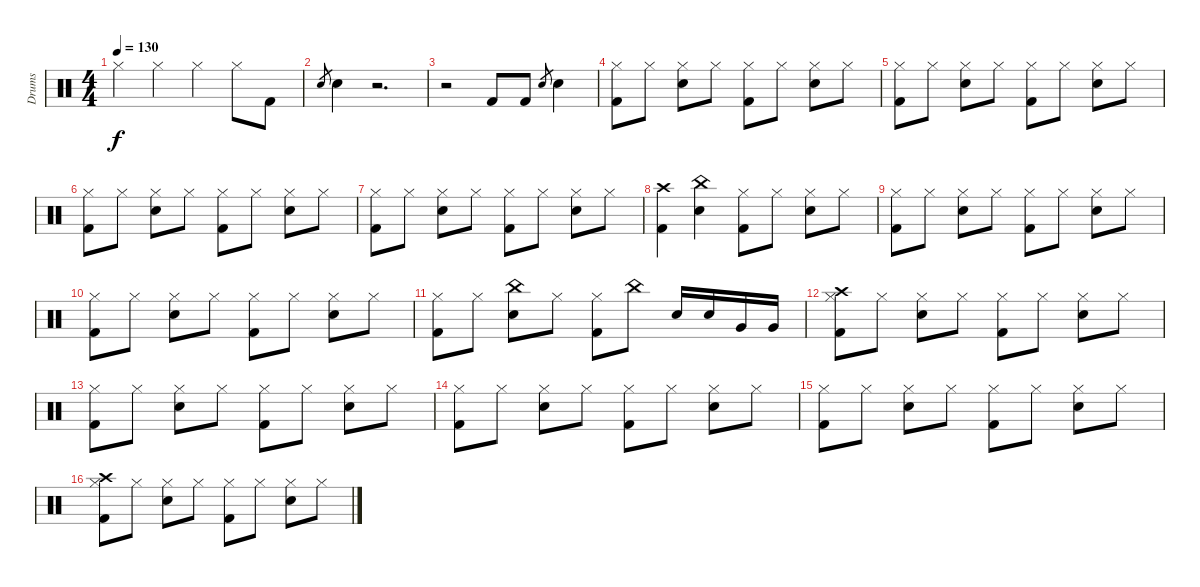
\track ("Drums" "Drums") {instrument percussion}
\staff {score}
\articulation defaults
\ts (4 4)
\tempo 130
\clef neutral
\ks c "Hi-Hat (closed)".4{dy f} "Hi-Hat (closed)".4 "Hi-Hat (closed)".4 "Hi-Hat (closed)".8 "Kick (hit) 2".8
|
"Electric Snare (hit)".8{gr} "Electric Snare (hit)".4 r.2{d} |
r.2 "Kick (hit) 2".8 "Kick (hit) 2".8 "Electric Snare (hit)".8{gr} "Electric Snare (hit)".4 |
("Hi-Hat (closed)" "Kick (hit) 2").8 "Hi-Hat (closed)".8 ("Hi-Hat (closed)" "Electric Snare (hit)").8 "Hi-Hat (closed)".8 ("Hi-Hat (closed)" "Kick (hit) 2").8 "Hi-Hat (closed)".8 ("Hi-Hat (closed)" "Electric Snare (hit)").8 "Hi-Hat (closed)".8 |
("Hi-Hat (closed)" "Kick (hit) 2").8 "Hi-Hat (closed)".8 ("Hi-Hat (closed)" "Electric Snare (hit)").8 "Hi-Hat (closed)".8 ("Hi-Hat (closed)" "Kick (hit) 2").8 "Hi-Hat (closed)".8 ("Hi-Hat (closed)" "Electric Snare (hit)").8 "Hi-Hat (closed)".8 |
("Hi-Hat (closed)" "Kick (hit) 2").8 "Hi-Hat (closed)".8 ("Hi-Hat (closed)" "Electric Snare (hit)").8 "Hi-Hat (closed)".8 ("Hi-Hat (closed)" "Kick (hit) 2").8 "Hi-Hat (closed)".8 ("Hi-Hat (closed)" "Electric Snare (hit)").8 "Hi-Hat (closed)".8 |
("Hi-Hat (closed)" "Kick (hit) 2").8 "Hi-Hat (closed)".8 ("Hi-Hat (closed)" "Electric Snare (hit)").8 "Hi-Hat (closed)".8 ("Hi-Hat (closed)" "Kick (hit) 2").8 "Hi-Hat (closed)".8 ("Hi-Hat (closed)" "Electric Snare (hit)").8 "Hi-Hat (closed)".8 |
("Crash high (hit)" "Kick (hit) 2").4 ("China (hit)" "Electric Snare (hit)").4 ("Hi-Hat (closed)" "Kick (hit) 2").8 "Hi-Hat (closed)".8 ("Hi-Hat (closed)" "Electric Snare (hit)").8 "Hi-Hat (closed)".8 |
("Hi-Hat (closed)" "Kick (hit) 2").8 "Hi-Hat (closed)".8 ("Hi-Hat (closed)" "Electric Snare (hit)").8 "Hi-Hat (closed)".8 ("Hi-Hat (closed)" "Kick (hit) 2").8 "Hi-Hat (closed)".8 ("Hi-Hat (closed)" "Electric Snare (hit)").8 "Hi-Hat (closed)".8 |
("Hi-Hat (closed)" "Kick (hit) 2").8 "Hi-Hat (closed)".8 ("Hi-Hat (closed)" "Electric Snare (hit)").8 "Hi-Hat (closed)".8 ("Hi-Hat (closed)" "Kick (hit) 2").8 "Hi-Hat (closed)".8 ("Hi-Hat (closed)" "Electric Snare (hit)").8 "Hi-Hat (closed)".8 |
("Hi-Hat (closed)" "Kick (hit) 2").8 "Hi-Hat (closed)".8 ("China (hit)" "Electric Snare (hit)").8 "Hi-Hat (closed)".8 ("Hi-Hat (closed)" "Kick (hit) 2").8 "China (hit)".8 "Electric Snare (hit)".16 "Electric Snare (hit)".16 "Very Low Tom (hit)".16 "Very Low Tom (hit)".16 |
("Crash high (hit)" "Kick (hit) 2" "Hi-Hat (closed)").8 "Hi-Hat (closed)".8 ("Hi-Hat (closed)" "Electric Snare (hit)").8 "Hi-Hat (closed)".8 ("Hi-Hat (closed)" "Kick (hit) 2").8 "Hi-Hat (closed)".8 ("Hi-Hat (closed)" "Electric Snare (hit)").8 "Hi-Hat (closed)".8 |
("Hi-Hat (closed)" "Kick (hit) 2").8 "Hi-Hat (closed)".8 ("Hi-Hat (closed)" "Electric Snare (hit)").8 "Hi-Hat (closed)".8 ("Hi-Hat (closed)" "Kick (hit) 2").8 "Hi-Hat (closed)".8 ("Hi-Hat (closed)" "Electric Snare (hit)").8 "Hi-Hat (closed)".8 |
("Hi-Hat (closed)" "Kick (hit) 2").8 "Hi-Hat (closed)".8 ("Hi-Hat (closed)" "Electric Snare (hit)").8 "Hi-Hat (closed)".8 ("Hi-Hat (closed)" "Kick (hit) 2").8 "Hi-Hat (closed)".8 ("Hi-Hat (closed)" "Electric Snare (hit)").8 "Hi-Hat (closed)".8 |
("Hi-Hat (closed)" "Kick (hit) 2").8 "Hi-Hat (closed)".8 ("Hi-Hat (closed)" "Electric Snare (hit)").8 "Hi-Hat (closed)".8 ("Hi-Hat (closed)" "Kick (hit) 2").8 "Hi-Hat (closed)".8 ("Hi-Hat (closed)" "Electric Snare (hit)").8 "Hi-Hat (closed)".8 |
("Crash high (hit)" "Kick (hit) 2" "Hi-Hat (closed)").8 "Hi-Hat (closed)".8 ("Hi-Hat (closed)" "Electric Snare (hit)").8 "Hi-Hat (closed)".8 ("Hi-Hat (closed)" "Kick (hit) 2").8 "Hi-Hat (closed)".8 ("Hi-Hat (closed)" "Electric Snare (hit)").8 "Hi-Hat (closed)".8
